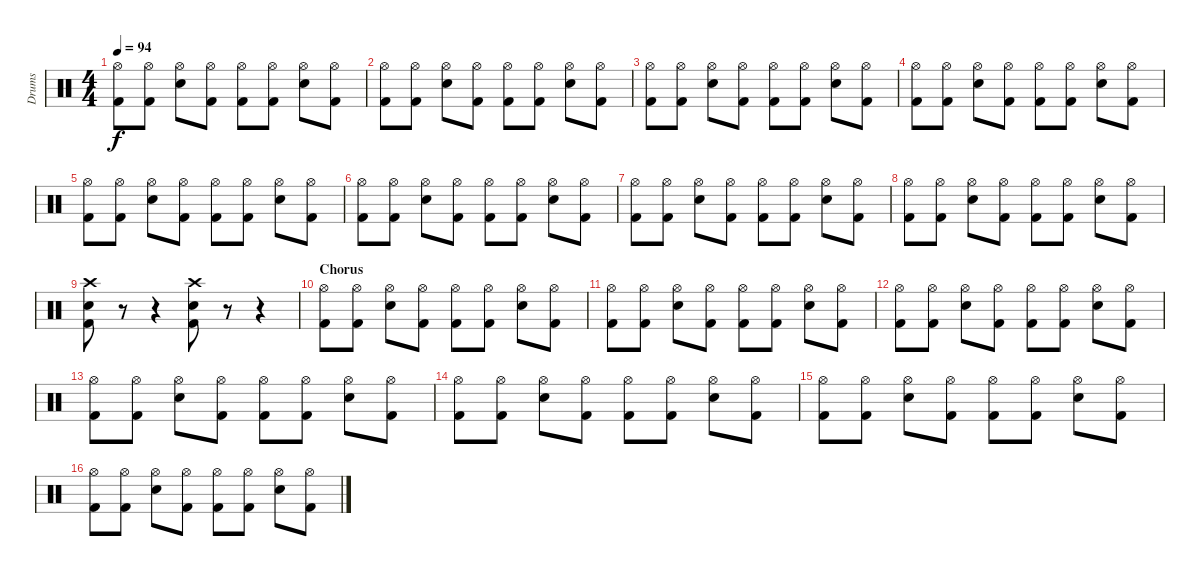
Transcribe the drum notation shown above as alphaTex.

\track ("Drums" "Drums") {instrument percussion}
\staff {score}
\articulation defaults
\ts (4 4)
\tempo 94
\clef neutral
\ks c
("Kick (hit) 2" "Hi-Hat (open)").8{dy f} ("Kick (hit) 2" "Hi-Hat (open)").8 ("Snare (hit) 2" "Hi-Hat (open)").8 ("Kick (hit) 2" "Hi-Hat (open)").8 ("Kick (hit) 2" "Hi-Hat (open)").8 ("Kick (hit) 2" "Hi-Hat (open)").8 ("Snare (hit) 2" "Hi-Hat (open)").8 ("Kick (hit) 2" "Hi-Hat (open)").8 |
("Kick (hit) 2" "Hi-Hat (open)").8 ("Kick (hit) 2" "Hi-Hat (open)").8 ("Snare (hit) 2" "Hi-Hat (open)").8 ("Kick (hit) 2" "Hi-Hat (open)").8 ("Kick (hit) 2" "Hi-Hat (open)").8 ("Kick (hit) 2" "Hi-Hat (open)").8 ("Snare (hit) 2" "Hi-Hat (open)").8 ("Kick (hit) 2" "Hi-Hat (open)").8 |
("Kick (hit) 2" "Hi-Hat (open)").8 ("Kick (hit) 2" "Hi-Hat (open)").8 ("Snare (hit) 2" "Hi-Hat (open)").8 ("Kick (hit) 2" "Hi-Hat (open)").8 ("Kick (hit) 2" "Hi-Hat (open)").8 ("Kick (hit) 2" "Hi-Hat (open)").8 ("Snare (hit) 2" "Hi-Hat (open)").8 ("Kick (hit) 2" "Hi-Hat (open)").8 |
("Kick (hit) 2" "Hi-Hat (open)").8 ("Kick (hit) 2" "Hi-Hat (open)").8 ("Snare (hit) 2" "Hi-Hat (open)").8 ("Kick (hit) 2" "Hi-Hat (open)").8 ("Kick (hit) 2" "Hi-Hat (open)").8 ("Kick (hit) 2" "Hi-Hat (open)").8 ("Snare (hit) 2" "Hi-Hat (open)").8 ("Kick (hit) 2" "Hi-Hat (open)").8 |
("Kick (hit) 2" "Hi-Hat (open)").8 ("Kick (hit) 2" "Hi-Hat (open)").8 ("Snare (hit) 2" "Hi-Hat (open)").8 ("Kick (hit) 2" "Hi-Hat (open)").8 ("Kick (hit) 2" "Hi-Hat (open)").8 ("Kick (hit) 2" "Hi-Hat (open)").8 ("Snare (hit) 2" "Hi-Hat (open)").8 ("Kick (hit) 2" "Hi-Hat (open)").8 |
("Kick (hit) 2" "Hi-Hat (open)").8 ("Kick (hit) 2" "Hi-Hat (open)").8 ("Snare (hit) 2" "Hi-Hat (open)").8 ("Kick (hit) 2" "Hi-Hat (open)").8 ("Kick (hit) 2" "Hi-Hat (open)").8 ("Kick (hit) 2" "Hi-Hat (open)").8 ("Snare (hit) 2" "Hi-Hat (open)").8 ("Kick (hit) 2" "Hi-Hat (open)").8 |
("Kick (hit) 2" "Hi-Hat (open)").8 ("Kick (hit) 2" "Hi-Hat (open)").8 ("Snare (hit) 2" "Hi-Hat (open)").8 ("Kick (hit) 2" "Hi-Hat (open)").8 ("Kick (hit) 2" "Hi-Hat (open)").8 ("Kick (hit) 2" "Hi-Hat (open)").8 ("Snare (hit) 2" "Hi-Hat (open)").8 ("Kick (hit) 2" "Hi-Hat (open)").8 |
("Kick (hit) 2" "Hi-Hat (open)").8 ("Kick (hit) 2" "Hi-Hat (open)").8 ("Snare (hit) 2" "Hi-Hat (open)").8 ("Kick (hit) 2" "Hi-Hat (open)").8 ("Kick (hit) 2" "Hi-Hat (open)").8 ("Kick (hit) 2" "Hi-Hat (open)").8 ("Snare (hit) 2" "Hi-Hat (open)").8 ("Kick (hit) 2" "Hi-Hat (open)").8 |
("Crash high (hit)" "Kick (hit) 2" "Snare (hit) 2").8 r.8 r.4 ("Crash high (hit)" "Kick (hit) 2" "Snare (hit) 2").8 r.8 r.4 |
\section ("" "Chorus")
("Kick (hit) 2" "Hi-Hat (open)").8 ("Kick (hit) 2" "Hi-Hat (open)").8 ("Snare (hit) 2" "Hi-Hat (open)").8 ("Kick (hit) 2" "Hi-Hat (open)").8 ("Kick (hit) 2" "Hi-Hat (open)").8 ("Kick (hit) 2" "Hi-Hat (open)").8 ("Snare (hit) 2" "Hi-Hat (open)").8 ("Kick (hit) 2" "Hi-Hat (open)").8 |
("Kick (hit) 2" "Hi-Hat (open)").8 ("Kick (hit) 2" "Hi-Hat (open)").8 ("Snare (hit) 2" "Hi-Hat (open)").8 ("Kick (hit) 2" "Hi-Hat (open)").8 ("Kick (hit) 2" "Hi-Hat (open)").8 ("Kick (hit) 2" "Hi-Hat (open)").8 ("Snare (hit) 2" "Hi-Hat (open)").8 ("Kick (hit) 2" "Hi-Hat (open)").8 |
("Kick (hit) 2" "Hi-Hat (open)").8 ("Kick (hit) 2" "Hi-Hat (open)").8 ("Snare (hit) 2" "Hi-Hat (open)").8 ("Kick (hit) 2" "Hi-Hat (open)").8 ("Kick (hit) 2" "Hi-Hat (open)").8 ("Kick (hit) 2" "Hi-Hat (open)").8 ("Snare (hit) 2" "Hi-Hat (open)").8 ("Kick (hit) 2" "Hi-Hat (open)").8 |
("Kick (hit) 2" "Hi-Hat (open)").8 ("Kick (hit) 2" "Hi-Hat (open)").8 ("Snare (hit) 2" "Hi-Hat (open)").8 ("Kick (hit) 2" "Hi-Hat (open)").8 ("Kick (hit) 2" "Hi-Hat (open)").8 ("Kick (hit) 2" "Hi-Hat (open)").8 ("Snare (hit) 2" "Hi-Hat (open)").8 ("Kick (hit) 2" "Hi-Hat (open)").8 |
("Kick (hit) 2" "Hi-Hat (open)").8 ("Kick (hit) 2" "Hi-Hat (open)").8 ("Snare (hit) 2" "Hi-Hat (open)").8 ("Kick (hit) 2" "Hi-Hat (open)").8 ("Kick (hit) 2" "Hi-Hat (open)").8 ("Kick (hit) 2" "Hi-Hat (open)").8 ("Snare (hit) 2" "Hi-Hat (open)").8 ("Kick (hit) 2" "Hi-Hat (open)").8 |
("Kick (hit) 2" "Hi-Hat (open)").8 ("Kick (hit) 2" "Hi-Hat (open)").8 ("Snare (hit) 2" "Hi-Hat (open)").8 ("Kick (hit) 2" "Hi-Hat (open)").8 ("Kick (hit) 2" "Hi-Hat (open)").8 ("Kick (hit) 2" "Hi-Hat (open)").8 ("Snare (hit) 2" "Hi-Hat (open)").8 ("Kick (hit) 2" "Hi-Hat (open)").8 |
("Kick (hit) 2" "Hi-Hat (open)").8 ("Kick (hit) 2" "Hi-Hat (open)").8 ("Snare (hit) 2" "Hi-Hat (open)").8 ("Kick (hit) 2" "Hi-Hat (open)").8 ("Kick (hit) 2" "Hi-Hat (open)").8 ("Kick (hit) 2" "Hi-Hat (open)").8 ("Snare (hit) 2" "Hi-Hat (open)").8 ("Kick (hit) 2" "Hi-Hat (open)").8
